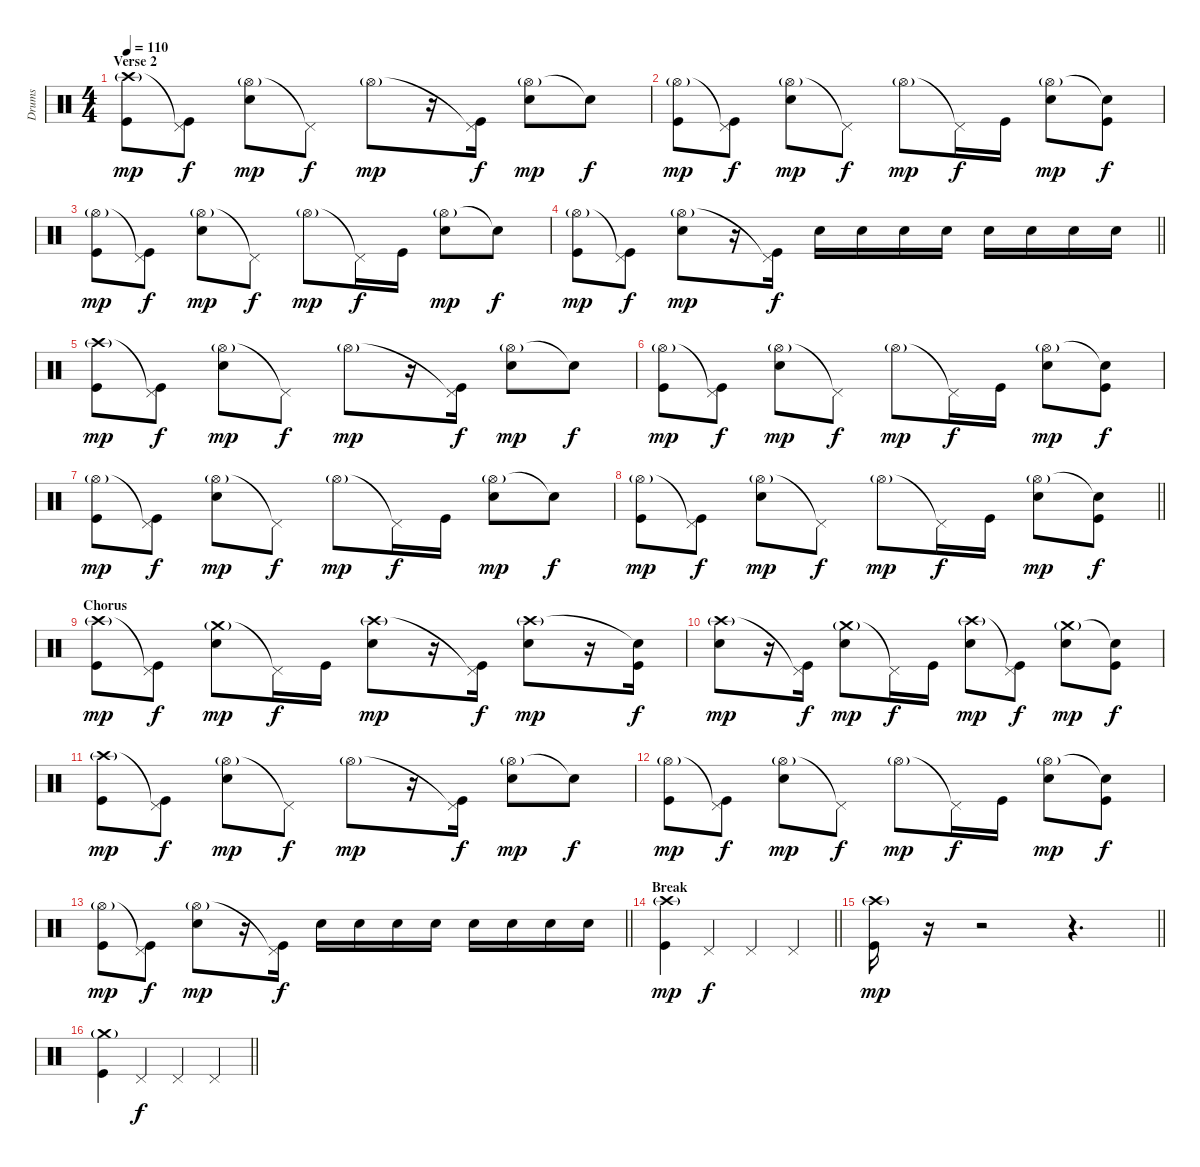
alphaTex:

\track ("Drums" "Drums") {instrument percussion}
\staff {score}
\articulation defaults
\ts (4 4)
\section ("" "Verse 2")
\tempo 110
\clef neutral
\ks c
("Crash high (hit)"{g} "Kick (hit)").8{dy mp} ("Pedal Hi-Hat (hit)"{t} "Kick (hit)").8{dy f} ("Hi-Hat (open)"{g} "Electric Snare (hit)").8{dy mp} "Pedal Hi-Hat (hit)"{t}.8{dy f} "Hi-Hat (open)"{g}.8{dy mp} r.16 ("Pedal Hi-Hat (hit)"{t} "Kick (hit)").16{dy f} ("Hi-Hat (open)"{g} "Electric Snare (hit)").8{dy mp} "Snare (hit)"{t}.8{dy f} |
("Hi-Hat (open)"{g} "Kick (hit)").8{dy mp} ("Pedal Hi-Hat (hit)"{t} "Kick (hit)").8{dy f} ("Hi-Hat (open)"{g} "Electric Snare (hit)").8{dy mp} "Pedal Hi-Hat (hit)"{t}.8{dy f} "Hi-Hat (open)"{g}.8{dy mp} "Pedal Hi-Hat (hit)"{t}.16{dy f} "Kick (hit)".16 ("Hi-Hat (open)"{g} "Electric Snare (hit)").8{dy mp} ("Snare (hit)"{t} "Kick (hit)").8{dy f} |
("Hi-Hat (open)"{g} "Kick (hit)").8{dy mp} ("Pedal Hi-Hat (hit)"{t} "Kick (hit)").8{dy f} ("Hi-Hat (open)"{g} "Electric Snare (hit)").8{dy mp} "Pedal Hi-Hat (hit)"{t}.8{dy f} "Hi-Hat (open)"{g}.8{dy mp} "Pedal Hi-Hat (hit)"{t}.16{dy f} "Kick (hit)".16 ("Hi-Hat (open)"{g} "Electric Snare (hit)").8{dy mp} "Snare (hit)"{t}.8{dy f} |
\barLineRight lightlight
("Hi-Hat (open)"{g} "Kick (hit)").8{dy mp} ("Pedal Hi-Hat (hit)"{t} "Kick (hit)").8{dy f} ("Hi-Hat (open)"{g} "Electric Snare (hit)").8{dy mp} r.16 ("Pedal Hi-Hat (hit)"{t} "Kick (hit)").16{dy f} "Electric Snare (hit)".16 "Electric Snare (hit)".16 "Electric Snare (hit)".16 "Electric Snare (hit)".16 "Electric Snare (hit)".16 "Electric Snare (hit)".16 "Electric Snare (hit)".16 "Electric Snare (hit)".16 |
("Crash high (hit)"{g} "Kick (hit)").8{dy mp} ("Pedal Hi-Hat (hit)"{t} "Kick (hit)").8{dy f} ("Hi-Hat (open)"{g} "Electric Snare (hit)").8{dy mp} "Pedal Hi-Hat (hit)"{t}.8{dy f} "Hi-Hat (open)"{g}.8{dy mp} r.16 ("Pedal Hi-Hat (hit)"{t} "Kick (hit)").16{dy f} ("Hi-Hat (open)"{g} "Electric Snare (hit)").8{dy mp} "Snare (hit)"{t}.8{dy f} |
("Hi-Hat (open)"{g} "Kick (hit)").8{dy mp} ("Pedal Hi-Hat (hit)"{t} "Kick (hit)").8{dy f} ("Hi-Hat (open)"{g} "Electric Snare (hit)").8{dy mp} "Pedal Hi-Hat (hit)"{t}.8{dy f} "Hi-Hat (open)"{g}.8{dy mp} "Pedal Hi-Hat (hit)"{t}.16{dy f} "Kick (hit)".16 ("Hi-Hat (open)"{g} "Electric Snare (hit)").8{dy mp} ("Snare (hit)"{t} "Kick (hit)").8{dy f} |
("Hi-Hat (open)"{g} "Kick (hit)").8{dy mp} ("Pedal Hi-Hat (hit)"{t} "Kick (hit)").8{dy f} ("Hi-Hat (open)"{g} "Electric Snare (hit)").8{dy mp} "Pedal Hi-Hat (hit)"{t}.8{dy f} "Hi-Hat (open)"{g}.8{dy mp} "Pedal Hi-Hat (hit)"{t}.16{dy f} "Kick (hit)".16 ("Hi-Hat (open)"{g} "Electric Snare (hit)").8{dy mp} "Snare (hit)"{t}.8{dy f} |
\barLineRight lightlight
("Hi-Hat (open)"{g} "Kick (hit)").8{dy mp} ("Pedal Hi-Hat (hit)"{t} "Kick (hit)").8{dy f} ("Hi-Hat (open)"{g} "Electric Snare (hit)").8{dy mp} "Pedal Hi-Hat (hit)"{t}.8{dy f} "Hi-Hat (open)"{g}.8{dy mp} "Pedal Hi-Hat (hit)"{t}.16{dy f} "Kick (hit)".16 ("Hi-Hat (open)"{g} "Electric Snare (hit)").8{dy mp} ("Snare (hit)"{t} "Kick (hit)").8{dy f} |
\section ("" "Chorus")
("Crash high (hit)"{g} "Kick (hit)").8{dy mp} ("Pedal Hi-Hat (hit)"{t} "Kick (hit)").8{dy f} ("Crash medium (hit)"{g} "Electric Snare (hit)").8{dy mp} "Pedal Hi-Hat (hit)"{t}.16{dy f} "Kick (hit)".16 ("Crash high (hit)"{g} "Electric Snare (hit)").8{dy mp} r.16 ("Pedal Hi-Hat (hit)"{t} "Kick (hit)").16{dy f} ("Crash high (hit)"{g} "Electric Snare (hit)").8{dy mp} r.16 ("Snare (hit)"{t} "Kick (hit)").16{dy f} |
("Crash high (hit)"{g} "Electric Snare (hit)").8{dy mp} r.16 ("Pedal Hi-Hat (hit)"{t} "Kick (hit)").16{dy f} ("Crash medium (hit)"{g} "Electric Snare (hit)").8{dy mp} "Pedal Hi-Hat (hit)"{t}.16{dy f} "Kick (hit)".16 ("Crash high (hit)"{g} "Electric Snare (hit)").8{dy mp} ("Pedal Hi-Hat (hit)"{t} "Kick (hit)").8{dy f} ("Crash medium (hit)"{g} "Electric Snare (hit)").8{dy mp} ("Snare (hit)"{t} "Kick (hit)").8{dy f} |
("Crash high (hit)"{g} "Kick (hit)").8{dy mp} ("Pedal Hi-Hat (hit)"{t} "Kick (hit)").8{dy f} ("Hi-Hat (open)"{g} "Electric Snare (hit)").8{dy mp} "Pedal Hi-Hat (hit)"{t}.8{dy f} "Hi-Hat (open)"{g}.8{dy mp} r.16 ("Pedal Hi-Hat (hit)"{t} "Kick (hit)").16{dy f} ("Hi-Hat (open)"{g} "Electric Snare (hit)").8{dy mp} "Snare (hit)"{t}.8{dy f} |
("Hi-Hat (open)"{g} "Kick (hit)").8{dy mp} ("Pedal Hi-Hat (hit)"{t} "Kick (hit)").8{dy f} ("Hi-Hat (open)"{g} "Electric Snare (hit)").8{dy mp} "Pedal Hi-Hat (hit)"{t}.8{dy f} "Hi-Hat (open)"{g}.8{dy mp} "Pedal Hi-Hat (hit)"{t}.16{dy f} "Kick (hit)".16 ("Hi-Hat (open)"{g} "Electric Snare (hit)").8{dy mp} ("Snare (hit)"{t} "Kick (hit)").8{dy f} |
\barLineRight lightlight
("Hi-Hat (open)"{g} "Kick (hit)").8{dy mp} ("Pedal Hi-Hat (hit)"{t} "Kick (hit)").8{dy f} ("Hi-Hat (open)"{g} "Electric Snare (hit)").8{dy mp} r.16 ("Pedal Hi-Hat (hit)"{t} "Kick (hit)").16{dy f} "Electric Snare (hit)".16 "Electric Snare (hit)".16 "Electric Snare (hit)".16 "Electric Snare (hit)".16 "Electric Snare (hit)".16 "Electric Snare (hit)".16 "Electric Snare (hit)".16 "Electric Snare (hit)".16 |
\section ("" "Break")
\barLineRight lightlight
("Crash high (hit)"{g} "Kick (hit)").4{dy mp} "Pedal Hi-Hat (hit)".4{dy f} "Pedal Hi-Hat (hit)".4 "Pedal Hi-Hat (hit)".4 |
\barLineRight lightlight
("Crash high (hit)"{g} "Kick (hit)").16{dy mp} r.16 r.2 r.4{d} |
\barLineRight lightlight
("Crash medium (hit)"{g} "Kick (hit)").4 "Pedal Hi-Hat (hit)".4{dy f} "Pedal Hi-Hat (hit)".4 "Pedal Hi-Hat (hit)".4
